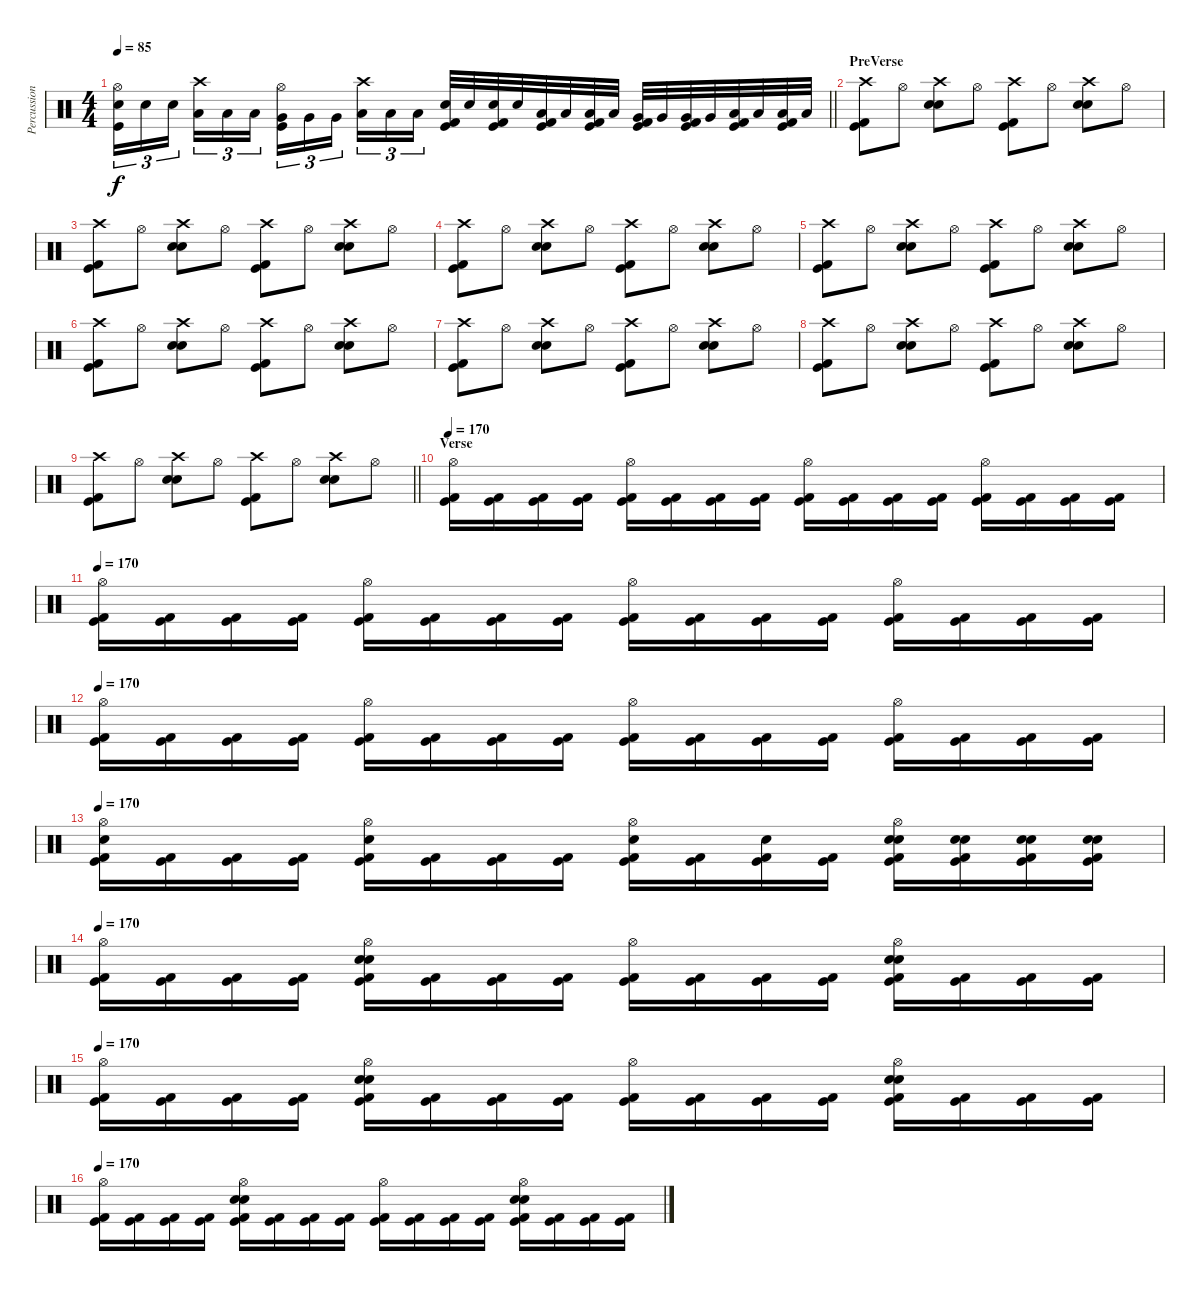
\track ("Percussion" "Percussion") {instrument percussion}
\staff {score}
\articulation defaults
\ts (4 4)
\tempo 85
\clef neutral
\barLineRight lightlight
\ks c
("Hi-Hat (open)" "Snare (hit) 2" "Kick (hit)").16{tu (3 2) dy f} "Snare (hit) 2".16{tu (3 2)} "Snare (hit) 2".16{tu (3 2) beam splitsecondary} ("Crash high (hit)" "Low Tom (hit)").16{tu (3 2)} "Low Tom (hit)".16{tu (3 2)} "Low Tom (hit)".16{tu (3 2)} ("Hi-Hat (open)" "Very Low Tom (hit)" "Kick (hit)").16{tu (3 2)} "Very Low Tom (hit)".16{tu (3 2)} "Very Low Tom (hit)".16{tu (3 2) beam splitsecondary} ("Crash high (hit)" "Low Floor Tom (hit)").16{tu (3 2)} "Low Floor Tom (hit)".16{tu (3 2)} "Low Floor Tom (hit)".16{tu (3 2)} ("Snare (hit) 2" "Kick (hit) 2" "Kick (hit)").32 "Snare (hit) 2".32 ("Snare (hit) 2" "Kick (hit) 2" "Kick (hit)").32 "Snare (hit) 2".32 ("Low Tom (hit)" "Kick (hit) 2" "Kick (hit)").32 "Low Tom (hit)".32 ("Low Tom (hit)" "Kick (hit) 2" "Kick (hit)").32 "Low Tom (hit)".32 ("Very Low Tom (hit)" "Kick (hit) 2" "Kick (hit)").32 "Very Low Tom (hit)".32 ("Very Low Tom (hit)" "Kick (hit) 2" "Kick (hit)").32 "Very Low Tom (hit)".32 ("Low Floor Tom (hit)" "Kick (hit) 2" "Kick (hit)").32 "Low Floor Tom (hit)".32 ("Low Floor Tom (hit)" "Kick (hit) 2" "Kick (hit)").32 "Low Floor Tom (hit)".32 |
\section ("" "PreVerse")
("Crash high (hit)" "Kick (hit) 2" "Kick (hit)").8 "Hi-Hat (open)".8 ("Crash high (hit)" "Electric Snare (hit)" "Snare (hit) 2").8 "Hi-Hat (open)".8 ("Crash high (hit)" "Kick (hit) 2" "Kick (hit)").8 "Hi-Hat (open)".8 ("Crash high (hit)" "Electric Snare (hit)" "Snare (hit) 2").8 "Hi-Hat (open)".8 |
("Crash high (hit)" "Kick (hit) 2" "Kick (hit)").8 "Hi-Hat (open)".8 ("Crash high (hit)" "Electric Snare (hit)" "Snare (hit) 2").8 "Hi-Hat (open)".8 ("Crash high (hit)" "Kick (hit) 2" "Kick (hit)").8 "Hi-Hat (open)".8 ("Crash high (hit)" "Electric Snare (hit)" "Snare (hit) 2").8 "Hi-Hat (open)".8 |
("Crash high (hit)" "Kick (hit) 2" "Kick (hit)").8 "Hi-Hat (open)".8 ("Crash high (hit)" "Electric Snare (hit)" "Snare (hit) 2").8 "Hi-Hat (open)".8 ("Crash high (hit)" "Kick (hit) 2" "Kick (hit)").8 "Hi-Hat (open)".8 ("Crash high (hit)" "Electric Snare (hit)" "Snare (hit) 2").8 "Hi-Hat (open)".8 |
("Crash high (hit)" "Kick (hit) 2" "Kick (hit)").8 "Hi-Hat (open)".8 ("Crash high (hit)" "Electric Snare (hit)" "Snare (hit) 2").8 "Hi-Hat (open)".8 ("Crash high (hit)" "Kick (hit) 2" "Kick (hit)").8 "Hi-Hat (open)".8 ("Crash high (hit)" "Electric Snare (hit)" "Snare (hit) 2").8 "Hi-Hat (open)".8 |
("Crash high (hit)" "Kick (hit) 2" "Kick (hit)").8 "Hi-Hat (open)".8 ("Crash high (hit)" "Electric Snare (hit)" "Snare (hit) 2").8 "Hi-Hat (open)".8 ("Crash high (hit)" "Kick (hit) 2" "Kick (hit)").8 "Hi-Hat (open)".8 ("Crash high (hit)" "Electric Snare (hit)" "Snare (hit) 2").8 "Hi-Hat (open)".8 |
("Crash high (hit)" "Kick (hit) 2" "Kick (hit)").8 "Hi-Hat (open)".8 ("Crash high (hit)" "Electric Snare (hit)" "Snare (hit) 2").8 "Hi-Hat (open)".8 ("Crash high (hit)" "Kick (hit) 2" "Kick (hit)").8 "Hi-Hat (open)".8 ("Crash high (hit)" "Electric Snare (hit)" "Snare (hit) 2").8 "Hi-Hat (open)".8 |
("Crash high (hit)" "Kick (hit) 2" "Kick (hit)").8 "Hi-Hat (open)".8 ("Crash high (hit)" "Electric Snare (hit)" "Snare (hit) 2").8 "Hi-Hat (open)".8 ("Crash high (hit)" "Kick (hit) 2" "Kick (hit)").8 "Hi-Hat (open)".8 ("Crash high (hit)" "Electric Snare (hit)" "Snare (hit) 2").8 "Hi-Hat (open)".8 |
\barLineRight lightlight
("Crash high (hit)" "Kick (hit) 2" "Kick (hit)").8 "Hi-Hat (open)".8 ("Crash high (hit)" "Electric Snare (hit)" "Snare (hit) 2").8 "Hi-Hat (open)".8 ("Crash high (hit)" "Kick (hit) 2" "Kick (hit)").8 "Hi-Hat (open)".8 ("Crash high (hit)" "Electric Snare (hit)" "Snare (hit) 2").8 "Hi-Hat (open)".8 |
\section ("" "Verse")
\tempo 170
("Hi-Hat (open)" "Kick (hit) 2" "Kick (hit)").16 ("Kick (hit) 2" "Kick (hit)").16 ("Kick (hit) 2" "Kick (hit)").16 ("Kick (hit) 2" "Kick (hit)").16 ("Hi-Hat (open)" "Kick (hit) 2" "Kick (hit)").16 ("Kick (hit) 2" "Kick (hit)").16 ("Kick (hit) 2" "Kick (hit)").16 ("Kick (hit) 2" "Kick (hit)").16 ("Hi-Hat (open)" "Kick (hit) 2" "Kick (hit)").16 ("Kick (hit) 2" "Kick (hit)").16 ("Kick (hit) 2" "Kick (hit)").16 ("Kick (hit) 2" "Kick (hit)").16 ("Hi-Hat (open)" "Kick (hit) 2" "Kick (hit)").16 ("Kick (hit) 2" "Kick (hit)").16 ("Kick (hit) 2" "Kick (hit)").16 ("Kick (hit) 2" "Kick (hit)").16 |
\tempo 170
("Hi-Hat (open)" "Kick (hit) 2" "Kick (hit)").16 ("Kick (hit) 2" "Kick (hit)").16 ("Kick (hit) 2" "Kick (hit)").16 ("Kick (hit) 2" "Kick (hit)").16 ("Hi-Hat (open)" "Kick (hit) 2" "Kick (hit)").16 ("Kick (hit) 2" "Kick (hit)").16 ("Kick (hit) 2" "Kick (hit)").16 ("Kick (hit) 2" "Kick (hit)").16 ("Hi-Hat (open)" "Kick (hit) 2" "Kick (hit)").16 ("Kick (hit) 2" "Kick (hit)").16 ("Kick (hit) 2" "Kick (hit)").16 ("Kick (hit) 2" "Kick (hit)").16 ("Hi-Hat (open)" "Kick (hit) 2" "Kick (hit)").16 ("Kick (hit) 2" "Kick (hit)").16 ("Kick (hit) 2" "Kick (hit)").16 ("Kick (hit) 2" "Kick (hit)").16 |
\tempo 170
("Hi-Hat (open)" "Kick (hit) 2" "Kick (hit)").16 ("Kick (hit) 2" "Kick (hit)").16 ("Kick (hit) 2" "Kick (hit)").16 ("Kick (hit) 2" "Kick (hit)").16 ("Hi-Hat (open)" "Kick (hit) 2" "Kick (hit)").16 ("Kick (hit) 2" "Kick (hit)").16 ("Kick (hit) 2" "Kick (hit)").16 ("Kick (hit) 2" "Kick (hit)").16 ("Hi-Hat (open)" "Kick (hit) 2" "Kick (hit)").16 ("Kick (hit) 2" "Kick (hit)").16 ("Kick (hit) 2" "Kick (hit)").16 ("Kick (hit) 2" "Kick (hit)").16 ("Hi-Hat (open)" "Kick (hit) 2" "Kick (hit)").16 ("Kick (hit) 2" "Kick (hit)").16 ("Kick (hit) 2" "Kick (hit)").16 ("Kick (hit) 2" "Kick (hit)").16 |
\tempo 170
("Hi-Hat (open)" "Electric Snare (hit)" "Kick (hit) 2" "Kick (hit)").16 ("Kick (hit) 2" "Kick (hit)").16 ("Kick (hit) 2" "Kick (hit)").16 ("Kick (hit) 2" "Kick (hit)").16 ("Hi-Hat (open)" "Electric Snare (hit)" "Kick (hit) 2" "Kick (hit)").16 ("Kick (hit) 2" "Kick (hit)").16 ("Kick (hit) 2" "Kick (hit)").16 ("Kick (hit) 2" "Kick (hit)").16 ("Hi-Hat (open)" "Electric Snare (hit)" "Kick (hit) 2" "Kick (hit)").16 ("Kick (hit) 2" "Kick (hit)").16 ("Electric Snare (hit)" "Kick (hit) 2" "Kick (hit)").16 ("Kick (hit) 2" "Kick (hit)").16 ("Hi-Hat (open)" "Electric Snare (hit)" "Electric Snare (hit)" "Kick (hit) 2" "Kick (hit)").16 ("Electric Snare (hit)" "Electric Snare (hit)" "Kick (hit) 2" "Kick (hit)").16 ("Electric Snare (hit)" "Electric Snare (hit)" "Kick (hit) 2" "Kick (hit)").16 ("Electric Snare (hit)" "Electric Snare (hit)" "Kick (hit) 2" "Kick (hit)").16 |
\tempo 170
("Hi-Hat (open)" "Kick (hit) 2" "Kick (hit)").16 ("Kick (hit) 2" "Kick (hit)").16 ("Kick (hit) 2" "Kick (hit)").16 ("Kick (hit) 2" "Kick (hit)").16 ("Hi-Hat (open)" "Electric Snare (hit)" "Electric Snare (hit)" "Kick (hit) 2" "Kick (hit)").16 ("Kick (hit) 2" "Kick (hit)").16 ("Kick (hit) 2" "Kick (hit)").16 ("Kick (hit) 2" "Kick (hit)").16 ("Hi-Hat (open)" "Kick (hit) 2" "Kick (hit)").16 ("Kick (hit) 2" "Kick (hit)").16 ("Kick (hit) 2" "Kick (hit)").16 ("Kick (hit) 2" "Kick (hit)").16 ("Hi-Hat (open)" "Electric Snare (hit)" "Electric Snare (hit)" "Kick (hit) 2" "Kick (hit)").16 ("Kick (hit) 2" "Kick (hit)").16 ("Kick (hit) 2" "Kick (hit)").16 ("Kick (hit) 2" "Kick (hit)").16 |
\tempo 170
("Hi-Hat (open)" "Kick (hit) 2" "Kick (hit)").16 ("Kick (hit) 2" "Kick (hit)").16 ("Kick (hit) 2" "Kick (hit)").16 ("Kick (hit) 2" "Kick (hit)").16 ("Hi-Hat (open)" "Electric Snare (hit)" "Electric Snare (hit)" "Kick (hit) 2" "Kick (hit)").16 ("Kick (hit) 2" "Kick (hit)").16 ("Kick (hit) 2" "Kick (hit)").16 ("Kick (hit) 2" "Kick (hit)").16 ("Hi-Hat (open)" "Kick (hit) 2" "Kick (hit)").16 ("Kick (hit) 2" "Kick (hit)").16 ("Kick (hit) 2" "Kick (hit)").16 ("Kick (hit) 2" "Kick (hit)").16 ("Hi-Hat (open)" "Electric Snare (hit)" "Electric Snare (hit)" "Kick (hit) 2" "Kick (hit)").16 ("Kick (hit) 2" "Kick (hit)").16 ("Kick (hit) 2" "Kick (hit)").16 ("Kick (hit) 2" "Kick (hit)").16 |
\tempo 170
("Hi-Hat (open)" "Kick (hit) 2" "Kick (hit)").16 ("Kick (hit) 2" "Kick (hit)").16 ("Kick (hit) 2" "Kick (hit)").16 ("Kick (hit) 2" "Kick (hit)").16 ("Hi-Hat (open)" "Electric Snare (hit)" "Electric Snare (hit)" "Kick (hit) 2" "Kick (hit)").16 ("Kick (hit) 2" "Kick (hit)").16 ("Kick (hit) 2" "Kick (hit)").16 ("Kick (hit) 2" "Kick (hit)").16 ("Hi-Hat (open)" "Kick (hit) 2" "Kick (hit)").16 ("Kick (hit) 2" "Kick (hit)").16 ("Kick (hit) 2" "Kick (hit)").16 ("Kick (hit) 2" "Kick (hit)").16 ("Hi-Hat (open)" "Electric Snare (hit)" "Electric Snare (hit)" "Kick (hit) 2" "Kick (hit)").16 ("Kick (hit) 2" "Kick (hit)").16 ("Kick (hit) 2" "Kick (hit)").16 ("Kick (hit) 2" "Kick (hit)").16
